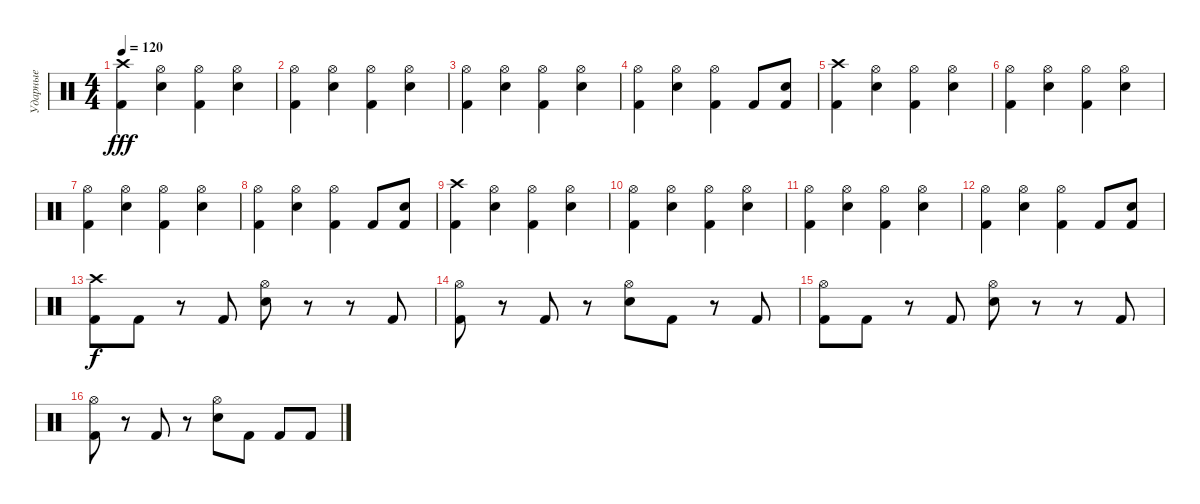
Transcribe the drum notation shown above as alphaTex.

\track ("Ударные" "Ударные") {instrument percussion}
\staff {score}
\articulation defaults
\ts (4 4)
\tempo 120
\clef neutral
\ks c
("Crash high (hit)" "Kick (hit) 2").4{dy fff} ("Hi-Hat (open)" "Snare (hit) 2").4 ("Hi-Hat (open)" "Kick (hit) 2").4 ("Hi-Hat (open)" "Snare (hit) 2").4 |
("Hi-Hat (open)" "Kick (hit) 2").4 ("Hi-Hat (open)" "Snare (hit) 2").4 ("Hi-Hat (open)" "Kick (hit) 2").4 ("Hi-Hat (open)" "Snare (hit) 2").4 |
("Hi-Hat (open)" "Kick (hit) 2").4 ("Hi-Hat (open)" "Snare (hit) 2").4 ("Hi-Hat (open)" "Kick (hit) 2").4 ("Hi-Hat (open)" "Snare (hit) 2").4 |
("Hi-Hat (open)" "Kick (hit) 2").4 ("Hi-Hat (open)" "Snare (hit) 2").4 ("Hi-Hat (open)" "Kick (hit) 2").4 "Kick (hit) 2".8 ("Snare (hit) 2" "Kick (hit) 2").8 |
("Crash high (hit)" "Kick (hit) 2").4 ("Hi-Hat (open)" "Snare (hit) 2").4 ("Hi-Hat (open)" "Kick (hit) 2").4 ("Hi-Hat (open)" "Snare (hit) 2").4 |
("Hi-Hat (open)" "Kick (hit) 2").4 ("Hi-Hat (open)" "Snare (hit) 2").4 ("Hi-Hat (open)" "Kick (hit) 2").4 ("Hi-Hat (open)" "Snare (hit) 2").4 |
("Hi-Hat (open)" "Kick (hit) 2").4 ("Hi-Hat (open)" "Snare (hit) 2").4 ("Hi-Hat (open)" "Kick (hit) 2").4 ("Hi-Hat (open)" "Snare (hit) 2").4 |
("Hi-Hat (open)" "Kick (hit) 2").4 ("Hi-Hat (open)" "Snare (hit) 2").4 ("Hi-Hat (open)" "Kick (hit) 2").4 "Kick (hit) 2".8 ("Snare (hit) 2" "Kick (hit) 2").8 |
("Crash high (hit)" "Kick (hit) 2").4 ("Hi-Hat (open)" "Snare (hit) 2").4 ("Hi-Hat (open)" "Kick (hit) 2").4 ("Hi-Hat (open)" "Snare (hit) 2").4 |
("Hi-Hat (open)" "Kick (hit) 2").4 ("Hi-Hat (open)" "Snare (hit) 2").4 ("Hi-Hat (open)" "Kick (hit) 2").4 ("Hi-Hat (open)" "Snare (hit) 2").4 |
("Hi-Hat (open)" "Kick (hit) 2").4 ("Hi-Hat (open)" "Snare (hit) 2").4 ("Hi-Hat (open)" "Kick (hit) 2").4 ("Hi-Hat (open)" "Snare (hit) 2").4 |
("Hi-Hat (open)" "Kick (hit) 2").4 ("Hi-Hat (open)" "Snare (hit) 2").4 ("Hi-Hat (open)" "Kick (hit) 2").4 "Kick (hit) 2".8 ("Snare (hit) 2" "Kick (hit) 2").8 |
("Crash high (hit)" "Kick (hit) 2").8{dy f} "Kick (hit) 2".8 r.8 "Kick (hit) 2".8 ("Hi-Hat (open)" "Snare (hit) 2").8 r.8 r.8 "Kick (hit) 2".8 |
("Hi-Hat (open)" "Kick (hit) 2").8 r.8 "Kick (hit) 2".8 r.8 ("Hi-Hat (open)" "Snare (hit) 2").8 "Kick (hit) 2".8 r.8 "Kick (hit) 2".8 |
("Hi-Hat (open)" "Kick (hit) 2").8 "Kick (hit) 2".8 r.8 "Kick (hit) 2".8 ("Hi-Hat (open)" "Snare (hit) 2").8 r.8 r.8 "Kick (hit) 2".8 |
("Hi-Hat (open)" "Kick (hit) 2").8 r.8 "Kick (hit) 2".8 r.8 ("Hi-Hat (open)" "Snare (hit) 2").8 "Kick (hit) 2".8 "Kick (hit) 2".8 "Kick (hit) 2".8
